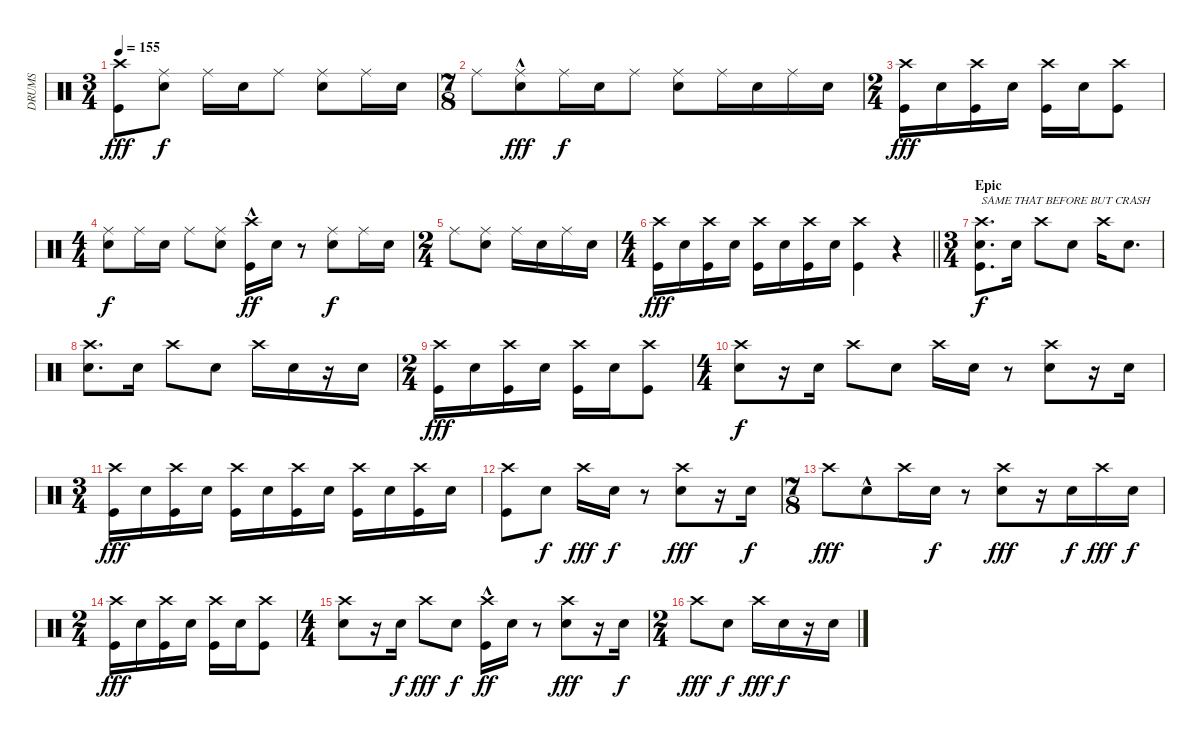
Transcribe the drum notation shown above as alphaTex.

\track ("DRUMS" "DRUMS") {instrument percussion}
\staff {score}
\articulation defaults
\ts (3 4)
\tempo 155
\clef neutral
\ks c
("Crash high (hit)" "Kick (hit)").8{dy fff} ("Ride (middle)" "Snare (hit) 2").8{dy f} "Ride (middle)".16 "Snare (hit) 2".16 "Ride (middle)".8 ("Snare (hit) 2" "Ride (middle)").8 "Ride (middle)".16 "Snare (hit) 2".16 |
\ts (7 8)
"Ride (middle)".8 ("Ride (middle)" "Snare (hit) 2"{hac}).8{dy fff} "Ride (middle)".16{dy f} "Snare (hit) 2".16 "Ride (middle)".8 ("Snare (hit) 2" "Ride (middle)").8 "Ride (middle)".16 "Snare (hit) 2".16 "Ride (middle)".16 "Snare (hit) 2".16 |
\ts (2 4)
("Crash high (hit)" "Kick (hit)").16{dy fff} "Snare (hit) 2".16 ("Kick (hit)" "Crash high (hit)").16 "Snare (hit) 2".16 ("Kick (hit)" "Crash high (hit)").16 "Snare (hit) 2".16 ("Crash high (hit)" "Kick (hit)").8 |
\ts (4 4)
("Ride (middle)" "Snare (hit) 2").8{dy f} "Ride (middle)".16 "Snare (hit) 2".16 "Ride (middle)".8 ("Ride (middle)" "Snare (hit) 2").8 ("Kick (hit)"{hac} "Crash high (hit)").16{dy ff} "Snare (hit) 2".16 r.8 ("Snare (hit) 2" "Ride (middle)").8{dy f} "Ride (middle)".16 "Snare (hit) 2".16 |
\ts (2 4)
"Ride (middle)".8 ("Snare (hit) 2" "Ride (middle)").8 "Ride (middle)".16 "Snare (hit) 2".16 "Ride (middle)".16 "Snare (hit) 2".16 |
\ts (4 4)
\barLineRight lightlight
("Crash high (hit)" "Kick (hit)").16{dy fff} "Snare (hit) 2".16 ("Kick (hit)" "Crash high (hit)").16 "Snare (hit) 2".16 ("Kick (hit)" "Crash high (hit)").16 "Snare (hit) 2".16 ("Kick (hit)" "Crash high (hit)").16 "Snare (hit) 2".16 ("Crash high (hit)" "Kick (hit)").4 r.4 |
\ts (3 4)
\section ("" "Epic")
("Crash high (hit)" "Kick (hit)" "Snare (hit) 2").8{d txt "SAME THAT BEFORE BUT CRASH" dy f} "Snare (hit) 2".16 "Crash high (hit)".8 "Snare (hit) 2".8 "Crash high (hit)".16 "Snare (hit) 2".8{d} |
("Crash high (hit)" "Snare (hit) 2").8{d} "Snare (hit) 2".16 "Crash high (hit)".8 "Snare (hit) 2".8 "Crash high (hit)".16 "Snare (hit) 2".16 r.16 "Snare (hit) 2".16 |
\ts (2 4)
("Crash high (hit)" "Kick (hit)").16{dy fff} "Snare (hit) 2".16 ("Kick (hit)" "Crash high (hit)").16 "Snare (hit) 2".16 ("Kick (hit)" "Crash high (hit)").16 "Snare (hit) 2".16 ("Crash high (hit)" "Kick (hit)").8 |
\ts (4 4)
("Crash high (hit)" "Snare (hit) 2").8{dy f} r.16 "Snare (hit) 2".16 "Crash high (hit)".8 "Snare (hit) 2".8 "Crash high (hit)".16 "Snare (hit) 2".16 r.8 ("Crash high (hit)" "Snare (hit) 2").8 r.16 "Snare (hit) 2".16 |
\ts (3 4)
("Crash high (hit)" "Kick (hit)").16{dy fff} "Snare (hit) 2".16 ("Kick (hit)" "Crash high (hit)").16 "Snare (hit) 2".16 ("Kick (hit)" "Crash high (hit)").16 "Snare (hit) 2".16 ("Kick (hit)" "Crash high (hit)").16 "Snare (hit) 2".16 ("Kick (hit)" "Crash high (hit)").16 "Snare (hit) 2".16 ("Kick (hit)" "Crash high (hit)").16 "Snare (hit) 2".16 |
("Crash high (hit)" "Kick (hit)").8 "Snare (hit) 2".8{dy f} "Crash high (hit)".16{dy fff} "Snare (hit) 2".16{dy f} r.8 ("Snare (hit) 2" "Crash high (hit)").8{dy fff} r.16 "Snare (hit) 2".16{dy f} |
\ts (7 8)
"Crash high (hit)".8{dy fff} "Snare (hit) 2"{hac}.8 "Crash high (hit)".16 "Snare (hit) 2".16{dy f} r.8 ("Snare (hit) 2" "Crash high (hit)").8{dy fff} r.16 "Snare (hit) 2".16{dy f} "Crash high (hit)".16{dy fff} "Snare (hit) 2".16{dy f} |
\ts (2 4)
("Crash high (hit)" "Kick (hit)").16{dy fff} "Snare (hit) 2".16 ("Kick (hit)" "Crash high (hit)").16 "Snare (hit) 2".16 ("Kick (hit)" "Crash high (hit)").16 "Snare (hit) 2".16 ("Crash high (hit)" "Kick (hit)").8 |
\ts (4 4)
("Crash high (hit)" "Snare (hit) 2").8 r.16 "Snare (hit) 2".16{dy f} "Crash high (hit)".8{dy fff} "Snare (hit) 2".8{dy f} ("Kick (hit)"{hac} "Crash high (hit)").16{dy ff} "Snare (hit) 2".16 r.8 ("Snare (hit) 2" "Crash high (hit)").8{dy fff} r.16 "Snare (hit) 2".16{dy f} |
\ts (2 4)
"Crash high (hit)".8{dy fff} "Snare (hit) 2".8{dy f} "Crash high (hit)".16{dy fff} "Snare (hit) 2".16{dy f} r.16 "Snare (hit) 2".16
